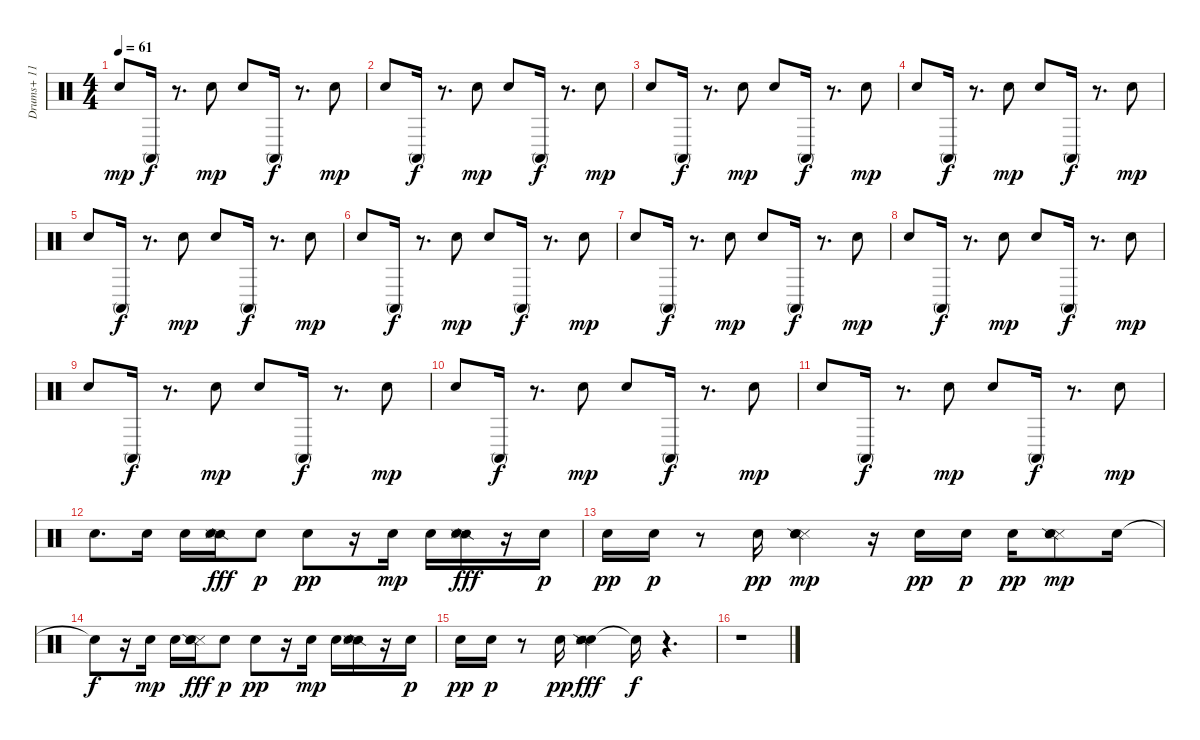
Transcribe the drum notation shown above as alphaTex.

\track ("Drums+ 11" "Drums+ 11") {instrument percussion}
\staff {score}
\articulation defaults
\ts (4 4)
\tempo 61
\clef neutral
\ks c "Hand Clap (hit)".8{dy mp} "Conga high (mute)".16{dy f}
r.8{d} "Hand Clap (hit)".8{dy mp} "Hand Clap (hit)".8 "Conga high (mute)".16{dy f} r.8{d} "Hand Clap (hit)".8{dy mp} |
"Hand Clap (hit)".8 "Conga high (mute)".16{dy f} r.8{d} "Hand Clap (hit)".8{dy mp} "Hand Clap (hit)".8 "Conga high (mute)".16{dy f} r.8{d} "Hand Clap (hit)".8{dy mp} |
"Hand Clap (hit)".8 "Conga high (mute)".16{dy f} r.8{d} "Hand Clap (hit)".8{dy mp} "Hand Clap (hit)".8 "Conga high (mute)".16{dy f} r.8{d} "Hand Clap (hit)".8{dy mp} |
"Hand Clap (hit)".8 "Conga high (mute)".16{dy f} r.8{d} "Hand Clap (hit)".8{dy mp} "Hand Clap (hit)".8 "Conga high (mute)".16{dy f} r.8{d} "Hand Clap (hit)".8{dy mp} |
"Hand Clap (hit)".8 "Conga high (mute)".16{dy f} r.8{d} "Hand Clap (hit)".8{dy mp} "Hand Clap (hit)".8 "Conga high (mute)".16{dy f} r.8{d} "Hand Clap (hit)".8{dy mp} |
"Hand Clap (hit)".8 "Conga high (mute)".16{dy f} r.8{d} "Hand Clap (hit)".8{dy mp} "Hand Clap (hit)".8 "Conga high (mute)".16{dy f} r.8{d} "Hand Clap (hit)".8{dy mp} |
"Hand Clap (hit)".8 "Conga high (mute)".16{dy f} r.8{d} "Hand Clap (hit)".8{dy mp} "Hand Clap (hit)".8 "Conga high (mute)".16{dy f} r.8{d} "Hand Clap (hit)".8{dy mp} |
"Hand Clap (hit)".8 "Conga high (mute)".16{dy f} r.8{d} "Hand Clap (hit)".8{dy mp} "Hand Clap (hit)".8 "Conga high (mute)".16{dy f} r.8{d} "Hand Clap (hit)".8{dy mp} |
"Hand Clap (hit)".8 "Conga high (mute)".16{dy f} r.8{d} "Hand Clap (hit)".8{dy mp} "Hand Clap (hit)".8 "Conga high (mute)".16{dy f} r.8{d} "Hand Clap (hit)".8{dy mp} |
"Hand Clap (hit)".8 "Conga high (mute)".16{dy f} r.8{d} "Hand Clap (hit)".8{dy mp} "Hand Clap (hit)".8 "Conga high (mute)".16{dy f} r.8{d} "Hand Clap (hit)".8{dy mp} |
"Hand Clap (hit)".8 "Conga high (mute)".16{dy f} r.8{d} "Hand Clap (hit)".8{dy mp} "Hand Clap (hit)".8 "Conga high (mute)".16{dy f} r.8{d} "Hand Clap (hit)".8{dy mp} |
"Hand Clap (hit)".8{d} "Hand Clap (hit)".16 "Hand Clap (hit)".16 ("Snare (side stick) 2" "Snare (side stick) 3" "Hand Clap (hit)").16{dy fff} "Hand Clap (hit)".8{dy p} "Hand Clap (hit)".8{dy pp} r.16 "Hand Clap (hit)".16{dy mp} "Hand Clap (hit)".16 ("Snare (side stick) 2" "Hand Clap (hit)" "Snare (side stick) 3").16{dy fff} r.16 "Hand Clap (hit)".16{dy p} |
"Hand Clap (hit)".16{dy pp} "Hand Clap (hit)".16{dy p} r.8 "Hand Clap (hit)".16{dy pp} ("Snare (side stick) 3" "Snare (side stick) 2" "Hand Clap (hit)").4{dy mp} r.16 "Hand Clap (hit)".16{dy pp} "Hand Clap (hit)".16{dy p} "Hand Clap (hit)".16{dy pp} ("Snare (side stick) 3" "Snare (side stick) 2" "Hand Clap (hit)").8{dy mp} "Hand Clap (hit)".16 |
"Snare (hit)"{t}.8{dy f} r.16 "Hand Clap (hit)".16{dy mp} "Hand Clap (hit)".16 ("Snare (side stick) 3" "Hand Clap (hit)" "Snare (side stick) 2").16{dy fff} "Hand Clap (hit)".8{dy p} "Hand Clap (hit)".8{dy pp} r.16 "Hand Clap (hit)".16{dy mp} "Hand Clap (hit)".16 ("Snare (side stick) 2" "Snare (side stick) 3" "Hand Clap (hit)").16 r.16 "Hand Clap (hit)".16{dy p} |
"Hand Clap (hit)".16{dy pp} "Hand Clap (hit)".16{dy p} r.8 "Hand Clap (hit)".16{dy pp} ("Hand Clap (hit)" "Snare (side stick) 3" "Snare (side stick) 2").4{dy fff} "Snare (hit)"{t}.16{dy f} r.4{d} |
r.1
